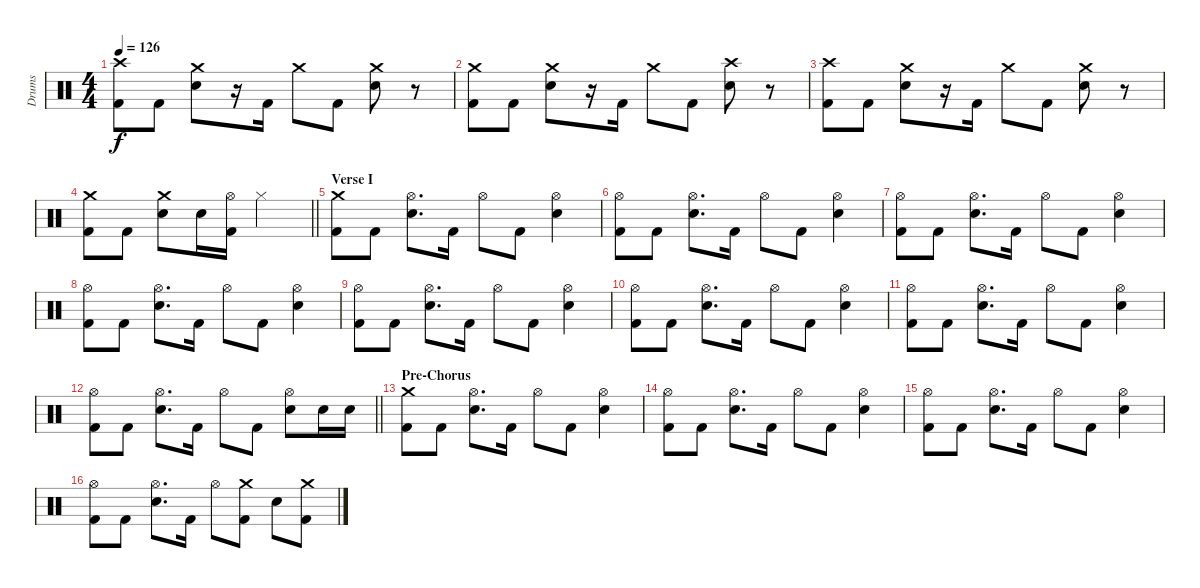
\track ("Drums" "Drums") {instrument percussion}
\staff {score}
\articulation defaults
\ts (4 4)
\tempo 126
\clef neutral
\ks c
("Crash high (hit)" "Kick (hit) 2").8{dy f} "Kick (hit) 2".8 ("Crash medium (hit)" "Electric Snare (hit)").8 r.16 "Kick (hit) 2".16 "Crash medium (hit)".8 "Kick (hit) 2".8 ("Crash medium (hit)" "Electric Snare (hit)").8 r.8 |
("Crash medium (hit)" "Kick (hit) 2").8 "Kick (hit) 2".8 ("Crash medium (hit)" "Electric Snare (hit)").8 r.16 "Kick (hit) 2".16 "Crash medium (hit)".8 "Kick (hit) 2".8 ("Crash high (hit)" "Electric Snare (hit)").8 r.8 |
("Crash high (hit)" "Kick (hit) 2").8 "Kick (hit) 2".8 ("Crash medium (hit)" "Electric Snare (hit)").8 r.16 "Kick (hit) 2".16 "Crash medium (hit)".8 "Kick (hit) 2".8 ("Crash medium (hit)" "Electric Snare (hit)").8 r.8 |
\barLineRight lightlight
("Crash medium (hit)" "Kick (hit) 2").8 "Kick (hit) 2".8 ("Crash medium (hit)" "Electric Snare (hit)").8 "Electric Snare (hit)".16 ("Hi-Hat (open)" "Kick (hit) 2").16 "Hi-Hat (closed)".2 |
\section ("" "Verse I")
("Crash medium (hit)" "Kick (hit) 2").8 "Kick (hit) 2".8 ("Hi-Hat (open)" "Electric Snare (hit)").8{d} "Kick (hit) 2".16 "Hi-Hat (open)".8 "Kick (hit) 2".8 ("Hi-Hat (open)" "Electric Snare (hit)").4 |
("Hi-Hat (open)" "Kick (hit) 2").8 "Kick (hit) 2".8 ("Hi-Hat (open)" "Electric Snare (hit)").8{d} "Kick (hit) 2".16 "Hi-Hat (open)".8 "Kick (hit) 2".8 ("Hi-Hat (open)" "Electric Snare (hit)").4 |
("Hi-Hat (open)" "Kick (hit) 2").8 "Kick (hit) 2".8 ("Hi-Hat (open)" "Electric Snare (hit)").8{d} "Kick (hit) 2".16 "Hi-Hat (open)".8 "Kick (hit) 2".8 ("Hi-Hat (open)" "Electric Snare (hit)").4 |
("Hi-Hat (open)" "Kick (hit) 2").8 "Kick (hit) 2".8 ("Hi-Hat (open)" "Electric Snare (hit)").8{d} "Kick (hit) 2".16 "Hi-Hat (open)".8 "Kick (hit) 2".8 ("Hi-Hat (open)" "Electric Snare (hit)").4 |
("Hi-Hat (open)" "Kick (hit) 2").8 "Kick (hit) 2".8 ("Hi-Hat (open)" "Electric Snare (hit)").8{d} "Kick (hit) 2".16 "Hi-Hat (open)".8 "Kick (hit) 2".8 ("Hi-Hat (open)" "Electric Snare (hit)").4 |
("Hi-Hat (open)" "Kick (hit) 2").8 "Kick (hit) 2".8 ("Hi-Hat (open)" "Electric Snare (hit)").8{d} "Kick (hit) 2".16 "Hi-Hat (open)".8 "Kick (hit) 2".8 ("Hi-Hat (open)" "Electric Snare (hit)").4 |
("Hi-Hat (open)" "Kick (hit) 2").8 "Kick (hit) 2".8 ("Hi-Hat (open)" "Electric Snare (hit)").8{d} "Kick (hit) 2".16 "Hi-Hat (open)".8 "Kick (hit) 2".8 ("Hi-Hat (open)" "Electric Snare (hit)").4 |
\barLineRight lightlight
("Hi-Hat (open)" "Kick (hit) 2").8 "Kick (hit) 2".8 ("Hi-Hat (open)" "Electric Snare (hit)").8{d} "Kick (hit) 2".16 "Hi-Hat (open)".8 "Kick (hit) 2".8 ("Hi-Hat (open)" "Electric Snare (hit)").8 "Electric Snare (hit)".16 "Electric Snare (hit)".16 |
\section ("" "Pre-Chorus")
("Crash medium (hit)" "Kick (hit) 2").8 "Kick (hit) 2".8 ("Hi-Hat (open)" "Electric Snare (hit)").8{d} "Kick (hit) 2".16 "Hi-Hat (open)".8 "Kick (hit) 2".8 ("Hi-Hat (open)" "Electric Snare (hit)").4 |
("Hi-Hat (open)" "Kick (hit) 2").8 "Kick (hit) 2".8 ("Hi-Hat (open)" "Electric Snare (hit)").8{d} "Kick (hit) 2".16 "Hi-Hat (open)".8 "Kick (hit) 2".8 ("Hi-Hat (open)" "Electric Snare (hit)").4 |
("Hi-Hat (open)" "Kick (hit) 2").8 "Kick (hit) 2".8 ("Hi-Hat (open)" "Electric Snare (hit)").8{d} "Kick (hit) 2".16 "Hi-Hat (open)".8 "Kick (hit) 2".8 ("Hi-Hat (open)" "Electric Snare (hit)").4 |
("Hi-Hat (open)" "Kick (hit) 2").8 "Kick (hit) 2".8 ("Hi-Hat (open)" "Electric Snare (hit)").8{d} "Kick (hit) 2".16 "Hi-Hat (open)".8 ("Crash medium (hit)" "Kick (hit) 2").8 "Electric Snare (hit)".8 ("Crash medium (hit)" "Kick (hit) 2").8
